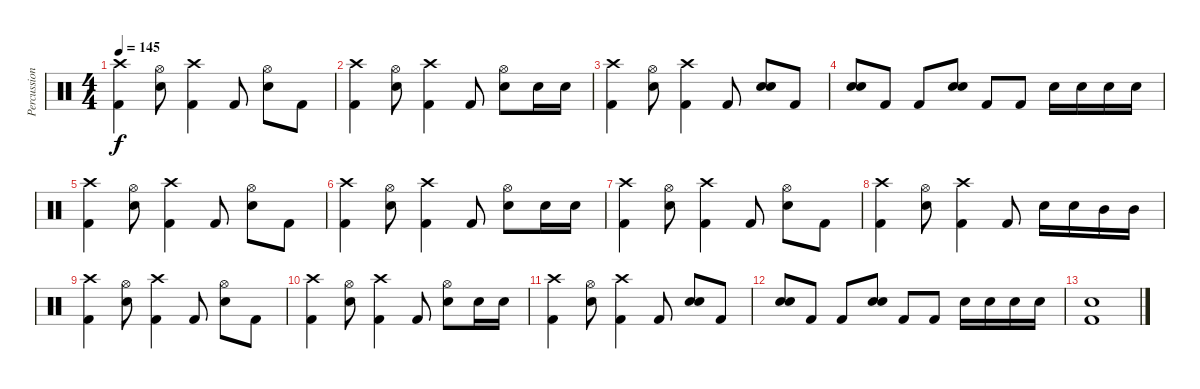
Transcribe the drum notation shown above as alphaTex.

\track ("Percussion" "Percussion") {instrument percussion}
\staff {score}
\articulation defaults
\ts (4 4)
\tempo 145
\clef neutral
\ks c
("Crash high (hit)" "Kick (hit) 2").4{dy f} ("Hi-Hat (open)" "Snare (hit) 2").8 ("Crash high (hit)" "Kick (hit) 2").4 "Kick (hit) 2".8 ("Hi-Hat (open)" "Snare (hit) 2").8 "Kick (hit) 2".8 |
("Crash high (hit)" "Kick (hit) 2").4 ("Hi-Hat (open)" "Snare (hit) 2").8 ("Crash high (hit)" "Kick (hit) 2").4 "Kick (hit) 2".8 ("Hi-Hat (open)" "Snare (hit) 2").8 "Snare (hit) 2".16 "Snare (hit) 2".16 |
("Crash high (hit)" "Kick (hit) 2").4 ("Hi-Hat (open)" "Snare (hit) 2").8 ("Crash high (hit)" "Kick (hit) 2").4 "Kick (hit) 2".8 ("Snare (hit) 2" "Snare (hit) 2").8{bd 240} "Kick (hit) 2".8 |
("Snare (hit) 2" "Snare (hit) 2").8{bd 240} "Kick (hit) 2".8 "Kick (hit) 2".8 ("Snare (hit) 2" "Snare (hit) 2").8{bd 240} "Kick (hit) 2".8 "Kick (hit) 2".8 "Snare (hit) 2".16 "Snare (hit) 2".16 "Snare (hit) 2".16 "Snare (hit) 2".16 |
("Crash high (hit)" "Kick (hit) 2").4 ("Hi-Hat (open)" "Snare (hit) 2").8 ("Crash high (hit)" "Kick (hit) 2").4 "Kick (hit) 2".8 ("Hi-Hat (open)" "Snare (hit) 2").8 "Kick (hit) 2".8 |
("Crash high (hit)" "Kick (hit) 2").4 ("Hi-Hat (open)" "Snare (hit) 2").8 ("Crash high (hit)" "Kick (hit) 2").4 "Kick (hit) 2".8 ("Hi-Hat (open)" "Snare (hit) 2").8 "Snare (hit) 2".16 "Snare (hit) 2".16 |
("Crash high (hit)" "Kick (hit) 2").4 ("Hi-Hat (open)" "Snare (hit) 2").8 ("Crash high (hit)" "Kick (hit) 2").4 "Kick (hit) 2".8 ("Hi-Hat (open)" "Snare (hit) 2").8 "Kick (hit) 2".8 |
("Crash high (hit)" "Kick (hit) 2").4 ("Hi-Hat (open)" "Snare (hit) 2").8 ("Crash high (hit)" "Kick (hit) 2").4 "Kick (hit) 2".8 "Snare (hit) 2".16 "Snare (hit) 2".16 "Mid Tom (hit)".16 "Mid Tom (hit)".16 |
("Crash high (hit)" "Kick (hit) 2").4 ("Hi-Hat (open)" "Snare (hit) 2").8 ("Crash high (hit)" "Kick (hit) 2").4 "Kick (hit) 2".8 ("Hi-Hat (open)" "Snare (hit) 2").8 "Kick (hit) 2".8 |
("Crash high (hit)" "Kick (hit) 2").4 ("Hi-Hat (open)" "Snare (hit) 2").8 ("Crash high (hit)" "Kick (hit) 2").4 "Kick (hit) 2".8 ("Hi-Hat (open)" "Snare (hit) 2").8 "Snare (hit) 2".16 "Snare (hit) 2".16 |
("Crash high (hit)" "Kick (hit) 2").4 ("Hi-Hat (open)" "Snare (hit) 2").8 ("Crash high (hit)" "Kick (hit) 2").4 "Kick (hit) 2".8 ("Snare (hit) 2" "Snare (hit) 2").8{bd 240} "Kick (hit) 2".8 |
("Snare (hit) 2" "Snare (hit) 2").8{bd 240} "Kick (hit) 2".8 "Kick (hit) 2".8 ("Snare (hit) 2" "Snare (hit) 2").8{bd 240} "Kick (hit) 2".8 "Kick (hit) 2".8 "Snare (hit) 2".16 "Snare (hit) 2".16 "Snare (hit) 2".16 "Snare (hit) 2".16 |
("Snare (hit) 2" "Kick (hit) 2").1
